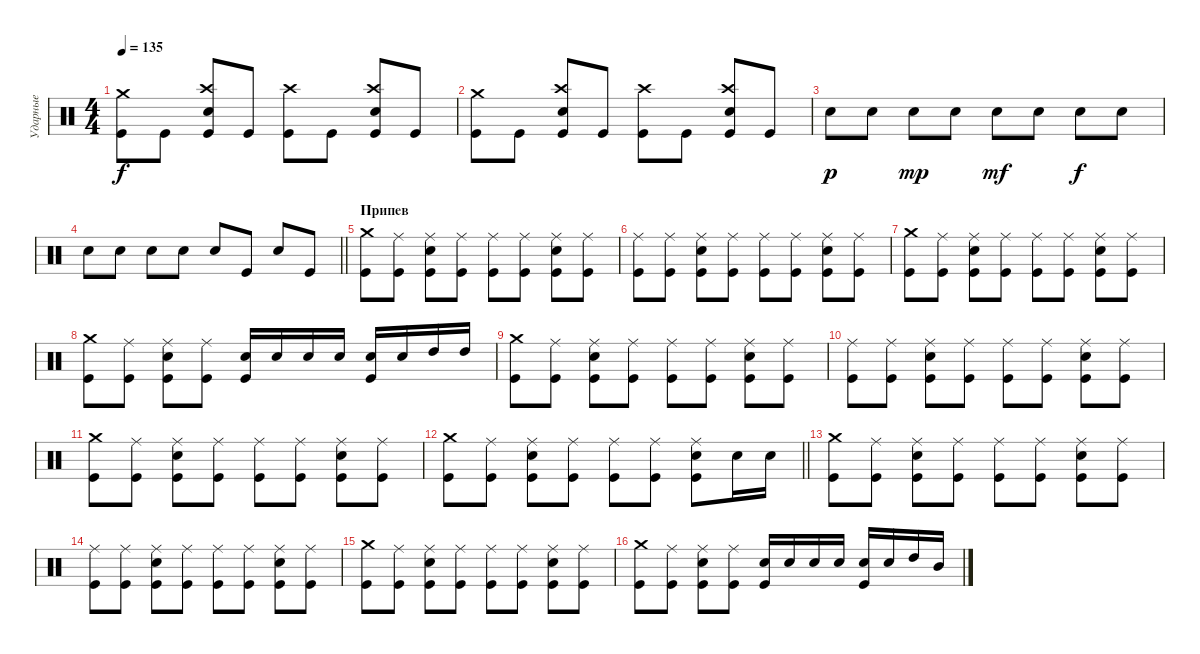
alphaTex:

\track ("Ударные" "Ударные") {instrument percussion}
\staff {score}
\articulation defaults
\ts (4 4)
\tempo 135
\clef neutral
\ks c
("Crash medium (hit)" "Kick (hit)").8{dy f} "Kick (hit)".8 ("Crash high (hit)" "Electric Snare (hit)" "Kick (hit)").8 "Kick (hit)".8 ("Crash high (hit)" "Kick (hit)").8 "Kick (hit)".8 ("Crash high (hit)" "Electric Snare (hit)" "Kick (hit)").8 "Kick (hit)".8 |
("Crash medium (hit)" "Kick (hit)").8 "Kick (hit)".8 ("Crash high (hit)" "Electric Snare (hit)" "Kick (hit)").8 "Kick (hit)".8 ("Crash high (hit)" "Kick (hit)").8 "Kick (hit)".8 ("Crash high (hit)" "Electric Snare (hit)" "Kick (hit)").8 "Kick (hit)".8 |
"Electric Snare (hit)".8{dy p} "Electric Snare (hit)".8 "Electric Snare (hit)".8{dy mp} "Electric Snare (hit)".8 "Electric Snare (hit)".8{dy mf} "Electric Snare (hit)".8 "Electric Snare (hit)".8{dy f} "Electric Snare (hit)".8 |
\barLineRight lightlight "Electric Snare (hit)".8 "Electric Snare (hit)".8 "Electric Snare (hit)".8 "Electric Snare (hit)".8 "Electric Snare (hit)".8 "Kick (hit)".8 "Electric Snare (hit)".8 "Kick (hit)".8
|
\section ("" "Припев")
("Crash medium (hit)" "Kick (hit)").8 ("Ride (middle)" "Kick (hit)").8 ("Ride (middle)" "Electric Snare (hit)" "Kick (hit)").8 ("Ride (middle)" "Kick (hit)").8 ("Ride (middle)" "Kick (hit)").8 ("Ride (middle)" "Kick (hit)").8 ("Ride (middle)" "Electric Snare (hit)" "Kick (hit)").8 ("Ride (middle)" "Kick (hit)").8 |
("Ride (middle)" "Kick (hit)").8 ("Ride (middle)" "Kick (hit)").8 ("Ride (middle)" "Electric Snare (hit)" "Kick (hit)").8 ("Ride (middle)" "Kick (hit)").8 ("Ride (middle)" "Kick (hit)").8 ("Ride (middle)" "Kick (hit)").8 ("Ride (middle)" "Electric Snare (hit)" "Kick (hit)").8 ("Ride (middle)" "Kick (hit)").8 |
("Crash medium (hit)" "Kick (hit)").8 ("Ride (middle)" "Kick (hit)").8 ("Ride (middle)" "Electric Snare (hit)" "Kick (hit)").8 ("Ride (middle)" "Kick (hit)").8 ("Ride (middle)" "Kick (hit)").8 ("Ride (middle)" "Kick (hit)").8 ("Ride (middle)" "Electric Snare (hit)" "Kick (hit)").8 ("Ride (middle)" "Kick (hit)").8 |
("Crash medium (hit)" "Kick (hit)").8 ("Ride (middle)" "Kick (hit)").8 ("Ride (middle)" "Electric Snare (hit)" "Kick (hit)").8 ("Ride (middle)" "Kick (hit)").8 ("Electric Snare (hit)" "Kick (hit)").16 "Electric Snare (hit)".16 "Electric Snare (hit)".16 "Electric Snare (hit)".16 ("Electric Snare (hit)" "Kick (hit)").16 "Electric Snare (hit)".16 "High Tom (hit)".16 "High Tom (hit)".16 |
("Crash medium (hit)" "Kick (hit)").8 ("Ride (middle)" "Kick (hit)").8 ("Ride (middle)" "Electric Snare (hit)" "Kick (hit)").8 ("Ride (middle)" "Kick (hit)").8 ("Ride (middle)" "Kick (hit)").8 ("Ride (middle)" "Kick (hit)").8 ("Ride (middle)" "Electric Snare (hit)" "Kick (hit)").8 ("Ride (middle)" "Kick (hit)").8 |
("Ride (middle)" "Kick (hit)").8 ("Ride (middle)" "Kick (hit)").8 ("Ride (middle)" "Electric Snare (hit)" "Kick (hit)").8 ("Ride (middle)" "Kick (hit)").8 ("Ride (middle)" "Kick (hit)").8 ("Ride (middle)" "Kick (hit)").8 ("Ride (middle)" "Electric Snare (hit)" "Kick (hit)").8 ("Ride (middle)" "Kick (hit)").8 |
("Crash medium (hit)" "Kick (hit)").8 ("Ride (middle)" "Kick (hit)").8 ("Ride (middle)" "Electric Snare (hit)" "Kick (hit)").8 ("Ride (middle)" "Kick (hit)").8 ("Ride (middle)" "Kick (hit)").8 ("Ride (middle)" "Kick (hit)").8 ("Ride (middle)" "Electric Snare (hit)" "Kick (hit)").8 ("Ride (middle)" "Kick (hit)").8 |
\barLineRight lightlight
("Crash medium (hit)" "Kick (hit)").8 ("Ride (middle)" "Kick (hit)").8 ("Ride (middle)" "Electric Snare (hit)" "Kick (hit)").8 ("Ride (middle)" "Kick (hit)").8 ("Ride (middle)" "Kick (hit)").8 ("Ride (middle)" "Kick (hit)").8 ("Ride (middle)" "Electric Snare (hit)" "Kick (hit)").8 "Electric Snare (hit)".16 "Electric Snare (hit)".16 |
\section ("" " ")
("Crash medium (hit)" "Kick (hit)").8 ("Ride (middle)" "Kick (hit)").8 ("Ride (middle)" "Electric Snare (hit)" "Kick (hit)").8 ("Ride (middle)" "Kick (hit)").8 ("Ride (middle)" "Kick (hit)").8 ("Ride (middle)" "Kick (hit)").8 ("Ride (middle)" "Electric Snare (hit)" "Kick (hit)").8 ("Ride (middle)" "Kick (hit)").8 |
("Ride (middle)" "Kick (hit)").8 ("Ride (middle)" "Kick (hit)").8 ("Ride (middle)" "Electric Snare (hit)" "Kick (hit)").8 ("Ride (middle)" "Kick (hit)").8 ("Ride (middle)" "Kick (hit)").8 ("Ride (middle)" "Kick (hit)").8 ("Ride (middle)" "Electric Snare (hit)" "Kick (hit)").8 ("Ride (middle)" "Kick (hit)").8 |
("Crash medium (hit)" "Kick (hit)").8 ("Ride (middle)" "Kick (hit)").8 ("Ride (middle)" "Electric Snare (hit)" "Kick (hit)").8 ("Ride (middle)" "Kick (hit)").8 ("Ride (middle)" "Kick (hit)").8 ("Ride (middle)" "Kick (hit)").8 ("Ride (middle)" "Electric Snare (hit)" "Kick (hit)").8 ("Ride (middle)" "Kick (hit)").8 |
("Crash medium (hit)" "Kick (hit)").8 ("Ride (middle)" "Kick (hit)").8 ("Ride (middle)" "Electric Snare (hit)" "Kick (hit)").8 ("Ride (middle)" "Kick (hit)").8 ("Electric Snare (hit)" "Kick (hit)").16 "Electric Snare (hit)".16 "Electric Snare (hit)".16 "Electric Snare (hit)".16 ("Electric Snare (hit)" "Kick (hit)").16 "Electric Snare (hit)".16 "High Tom (hit)".16 "Mid Tom (hit)".16
